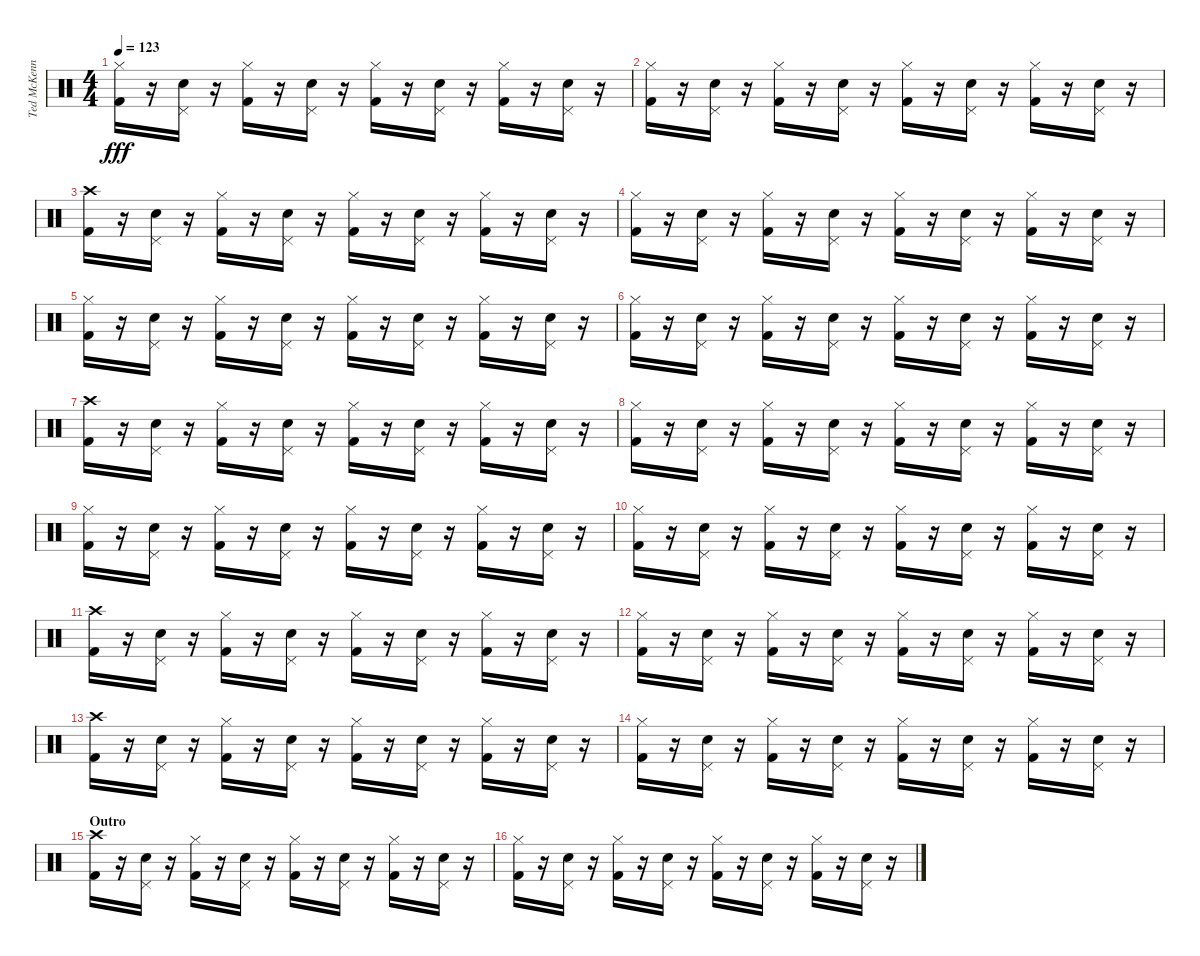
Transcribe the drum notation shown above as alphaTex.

\track ("Ted McKenna" "Ted McKenn") {instrument percussion}
\staff {score}
\articulation defaults
\ts (4 4)
\tempo 123
\clef neutral
\ks c
("Hi-Hat (closed)" "Kick (hit) 2").16{dy fff} r.16 ("Snare (hit) 2" "Pedal Hi-Hat (hit)").16 r.16 ("Hi-Hat (closed)" "Kick (hit) 2").16 r.16 ("Snare (hit) 2" "Pedal Hi-Hat (hit)").16 r.16 ("Hi-Hat (closed)" "Kick (hit) 2").16 r.16 ("Snare (hit) 2" "Pedal Hi-Hat (hit)").16 r.16 ("Hi-Hat (closed)" "Kick (hit) 2").16 r.16 ("Snare (hit) 2" "Pedal Hi-Hat (hit)").16 r.16 |
("Hi-Hat (closed)" "Kick (hit) 2").16 r.16 ("Snare (hit) 2" "Pedal Hi-Hat (hit)").16 r.16 ("Hi-Hat (closed)" "Kick (hit) 2").16 r.16 ("Snare (hit) 2" "Pedal Hi-Hat (hit)").16 r.16 ("Hi-Hat (closed)" "Kick (hit) 2").16 r.16 ("Snare (hit) 2" "Pedal Hi-Hat (hit)").16 r.16 ("Hi-Hat (closed)" "Kick (hit) 2").16 r.16 ("Snare (hit) 2" "Pedal Hi-Hat (hit)").16 r.16 |
("Crash high (hit)" "Kick (hit) 2").16 r.16 ("Snare (hit) 2" "Pedal Hi-Hat (hit)").16 r.16 ("Hi-Hat (closed)" "Kick (hit) 2").16 r.16 ("Snare (hit) 2" "Pedal Hi-Hat (hit)").16 r.16 ("Hi-Hat (closed)" "Kick (hit) 2").16 r.16 ("Snare (hit) 2" "Pedal Hi-Hat (hit)").16 r.16 ("Hi-Hat (closed)" "Kick (hit) 2").16 r.16 ("Snare (hit) 2" "Pedal Hi-Hat (hit)").16 r.16 |
("Hi-Hat (closed)" "Kick (hit) 2").16 r.16 ("Snare (hit) 2" "Pedal Hi-Hat (hit)").16 r.16 ("Hi-Hat (closed)" "Kick (hit) 2").16 r.16 ("Snare (hit) 2" "Pedal Hi-Hat (hit)").16 r.16 ("Hi-Hat (closed)" "Kick (hit) 2").16 r.16 ("Snare (hit) 2" "Pedal Hi-Hat (hit)").16 r.16 ("Hi-Hat (closed)" "Kick (hit) 2").16 r.16 ("Snare (hit) 2" "Pedal Hi-Hat (hit)").16 r.16 |
("Hi-Hat (closed)" "Kick (hit) 2").16 r.16 ("Snare (hit) 2" "Pedal Hi-Hat (hit)").16 r.16 ("Hi-Hat (closed)" "Kick (hit) 2").16 r.16 ("Snare (hit) 2" "Pedal Hi-Hat (hit)").16 r.16 ("Hi-Hat (closed)" "Kick (hit) 2").16 r.16 ("Snare (hit) 2" "Pedal Hi-Hat (hit)").16 r.16 ("Hi-Hat (closed)" "Kick (hit) 2").16 r.16 ("Snare (hit) 2" "Pedal Hi-Hat (hit)").16 r.16 |
("Hi-Hat (closed)" "Kick (hit) 2").16 r.16 ("Snare (hit) 2" "Pedal Hi-Hat (hit)").16 r.16 ("Hi-Hat (closed)" "Kick (hit) 2").16 r.16 ("Snare (hit) 2" "Pedal Hi-Hat (hit)").16 r.16 ("Hi-Hat (closed)" "Kick (hit) 2").16 r.16 ("Snare (hit) 2" "Pedal Hi-Hat (hit)").16 r.16 ("Hi-Hat (closed)" "Kick (hit) 2").16 r.16 ("Snare (hit) 2" "Pedal Hi-Hat (hit)").16 r.16 |
("Crash high (hit)" "Kick (hit) 2").16 r.16 ("Snare (hit) 2" "Pedal Hi-Hat (hit)").16 r.16 ("Hi-Hat (closed)" "Kick (hit) 2").16 r.16 ("Snare (hit) 2" "Pedal Hi-Hat (hit)").16 r.16 ("Hi-Hat (closed)" "Kick (hit) 2").16 r.16 ("Snare (hit) 2" "Pedal Hi-Hat (hit)").16 r.16 ("Hi-Hat (closed)" "Kick (hit) 2").16 r.16 ("Snare (hit) 2" "Pedal Hi-Hat (hit)").16 r.16 |
("Hi-Hat (closed)" "Kick (hit) 2").16 r.16 ("Snare (hit) 2" "Pedal Hi-Hat (hit)").16 r.16 ("Hi-Hat (closed)" "Kick (hit) 2").16 r.16 ("Snare (hit) 2" "Pedal Hi-Hat (hit)").16 r.16 ("Hi-Hat (closed)" "Kick (hit) 2").16 r.16 ("Snare (hit) 2" "Pedal Hi-Hat (hit)").16 r.16 ("Hi-Hat (closed)" "Kick (hit) 2").16 r.16 ("Snare (hit) 2" "Pedal Hi-Hat (hit)").16 r.16 |
("Hi-Hat (closed)" "Kick (hit) 2").16 r.16 ("Snare (hit) 2" "Pedal Hi-Hat (hit)").16 r.16 ("Hi-Hat (closed)" "Kick (hit) 2").16 r.16 ("Snare (hit) 2" "Pedal Hi-Hat (hit)").16 r.16 ("Hi-Hat (closed)" "Kick (hit) 2").16 r.16 ("Snare (hit) 2" "Pedal Hi-Hat (hit)").16 r.16 ("Hi-Hat (closed)" "Kick (hit) 2").16 r.16 ("Snare (hit) 2" "Pedal Hi-Hat (hit)").16 r.16 |
("Hi-Hat (closed)" "Kick (hit) 2").16 r.16 ("Snare (hit) 2" "Pedal Hi-Hat (hit)").16 r.16 ("Hi-Hat (closed)" "Kick (hit) 2").16 r.16 ("Snare (hit) 2" "Pedal Hi-Hat (hit)").16 r.16 ("Hi-Hat (closed)" "Kick (hit) 2").16 r.16 ("Snare (hit) 2" "Pedal Hi-Hat (hit)").16 r.16 ("Hi-Hat (closed)" "Kick (hit) 2").16 r.16 ("Snare (hit) 2" "Pedal Hi-Hat (hit)").16 r.16 |
("Crash high (hit)" "Kick (hit) 2").16 r.16 ("Snare (hit) 2" "Pedal Hi-Hat (hit)").16 r.16 ("Hi-Hat (closed)" "Kick (hit) 2").16 r.16 ("Snare (hit) 2" "Pedal Hi-Hat (hit)").16 r.16 ("Hi-Hat (closed)" "Kick (hit) 2").16 r.16 ("Snare (hit) 2" "Pedal Hi-Hat (hit)").16 r.16 ("Hi-Hat (closed)" "Kick (hit) 2").16 r.16 ("Snare (hit) 2" "Pedal Hi-Hat (hit)").16 r.16 |
("Hi-Hat (closed)" "Kick (hit) 2").16 r.16 ("Snare (hit) 2" "Pedal Hi-Hat (hit)").16 r.16 ("Hi-Hat (closed)" "Kick (hit) 2").16 r.16 ("Snare (hit) 2" "Pedal Hi-Hat (hit)").16 r.16 ("Hi-Hat (closed)" "Kick (hit) 2").16 r.16 ("Snare (hit) 2" "Pedal Hi-Hat (hit)").16 r.16 ("Hi-Hat (closed)" "Kick (hit) 2").16 r.16 ("Snare (hit) 2" "Pedal Hi-Hat (hit)").16 r.16 |
("Crash high (hit)" "Kick (hit) 2").16 r.16 ("Snare (hit) 2" "Pedal Hi-Hat (hit)").16 r.16 ("Hi-Hat (closed)" "Kick (hit) 2").16 r.16 ("Snare (hit) 2" "Pedal Hi-Hat (hit)").16 r.16 ("Hi-Hat (closed)" "Kick (hit) 2").16 r.16 ("Snare (hit) 2" "Pedal Hi-Hat (hit)").16 r.16 ("Hi-Hat (closed)" "Kick (hit) 2").16 r.16 ("Snare (hit) 2" "Pedal Hi-Hat (hit)").16 r.16 |
("Hi-Hat (closed)" "Kick (hit) 2").16 r.16 ("Snare (hit) 2" "Pedal Hi-Hat (hit)").16 r.16 ("Hi-Hat (closed)" "Kick (hit) 2").16 r.16 ("Snare (hit) 2" "Pedal Hi-Hat (hit)").16 r.16 ("Hi-Hat (closed)" "Kick (hit) 2").16 r.16 ("Snare (hit) 2" "Pedal Hi-Hat (hit)").16 r.16 ("Hi-Hat (closed)" "Kick (hit) 2").16 r.16 ("Snare (hit) 2" "Pedal Hi-Hat (hit)").16 r.16 |
\section ("" "Outro")
("Crash high (hit)" "Kick (hit) 2").16 r.16 ("Snare (hit) 2" "Pedal Hi-Hat (hit)").16 r.16 ("Hi-Hat (closed)" "Kick (hit) 2").16 r.16 ("Snare (hit) 2" "Pedal Hi-Hat (hit)").16 r.16 ("Hi-Hat (closed)" "Kick (hit) 2").16 r.16 ("Snare (hit) 2" "Pedal Hi-Hat (hit)").16 r.16 ("Hi-Hat (closed)" "Kick (hit) 2").16 r.16 ("Snare (hit) 2" "Pedal Hi-Hat (hit)").16 r.16 |
("Hi-Hat (closed)" "Kick (hit) 2").16 r.16 ("Snare (hit) 2" "Pedal Hi-Hat (hit)").16 r.16 ("Hi-Hat (closed)" "Kick (hit) 2").16 r.16 ("Snare (hit) 2" "Pedal Hi-Hat (hit)").16 r.16 ("Hi-Hat (closed)" "Kick (hit) 2").16 r.16 ("Snare (hit) 2" "Pedal Hi-Hat (hit)").16 r.16 ("Hi-Hat (closed)" "Kick (hit) 2").16 r.16 ("Snare (hit) 2" "Pedal Hi-Hat (hit)").16 r.16
